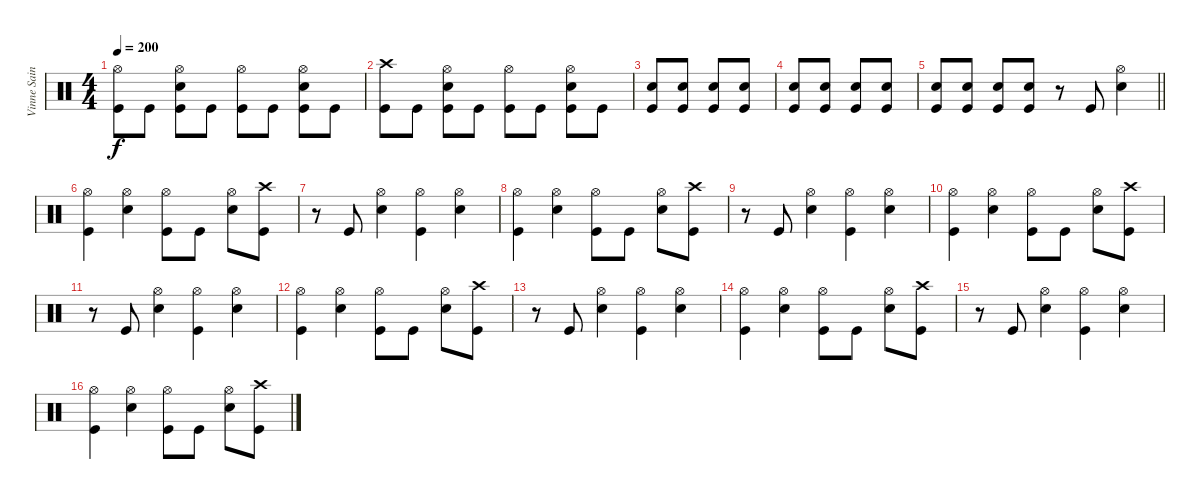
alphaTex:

\track ("Vinne Saint James" "Vinne Sain") {instrument percussion}
\staff {score}
\articulation defaults
\ts (4 4)
\tempo 200
\clef neutral
\ks c
("Hi-Hat (open)" "Kick (hit)").8{dy f} "Kick (hit)".8 ("Hi-Hat (open)" "Electric Snare (hit)" "Kick (hit)").8 "Kick (hit)".8 ("Hi-Hat (open)" "Kick (hit)").8 "Kick (hit)".8 ("Hi-Hat (open)" "Electric Snare (hit)" "Kick (hit)").8 "Kick (hit)".8 |
("Crash high (hit)" "Kick (hit)").8 "Kick (hit)".8 ("Hi-Hat (open)" "Electric Snare (hit)" "Kick (hit)").8 "Kick (hit)".8 ("Hi-Hat (open)" "Kick (hit)").8 "Kick (hit)".8 ("Hi-Hat (open)" "Electric Snare (hit)" "Kick (hit)").8 "Kick (hit)".8 |
("Electric Snare (hit)" "Kick (hit)").8 ("Electric Snare (hit)" "Kick (hit)").8 ("Electric Snare (hit)" "Kick (hit)").8 ("Electric Snare (hit)" "Kick (hit)").8 |
("Electric Snare (hit)" "Kick (hit)").8 ("Electric Snare (hit)" "Kick (hit)").8 ("Electric Snare (hit)" "Kick (hit)").8 ("Electric Snare (hit)" "Kick (hit)").8 |
\barLineRight lightlight
("Electric Snare (hit)" "Kick (hit)").8 ("Electric Snare (hit)" "Kick (hit)").8 ("Electric Snare (hit)" "Kick (hit)").8 ("Electric Snare (hit)" "Kick (hit)").8 r.8 "Kick (hit)".8 ("Hi-Hat (open)" "Electric Snare (hit)").4 |
("Hi-Hat (open)" "Kick (hit)").4 ("Hi-Hat (open)" "Electric Snare (hit)").4 ("Hi-Hat (open)" "Kick (hit)").8 "Kick (hit)".8 ("Hi-Hat (open)" "Electric Snare (hit)").8 ("Crash high (hit)" "Kick (hit)").8 |
r.8 "Kick (hit)".8 ("Hi-Hat (open)" "Electric Snare (hit)").4 ("Hi-Hat (open)" "Kick (hit)").4 ("Hi-Hat (open)" "Electric Snare (hit)").4 |
("Hi-Hat (open)" "Kick (hit)").4 ("Hi-Hat (open)" "Electric Snare (hit)").4 ("Hi-Hat (open)" "Kick (hit)").8 "Kick (hit)".8 ("Hi-Hat (open)" "Electric Snare (hit)").8 ("Crash high (hit)" "Kick (hit)").8 |
r.8 "Kick (hit)".8 ("Hi-Hat (open)" "Electric Snare (hit)").4 ("Hi-Hat (open)" "Kick (hit)").4 ("Hi-Hat (open)" "Electric Snare (hit)").4 |
("Hi-Hat (open)" "Kick (hit)").4 ("Hi-Hat (open)" "Electric Snare (hit)").4 ("Hi-Hat (open)" "Kick (hit)").8 "Kick (hit)".8 ("Hi-Hat (open)" "Electric Snare (hit)").8 ("Crash high (hit)" "Kick (hit)").8 |
r.8 "Kick (hit)".8 ("Hi-Hat (open)" "Electric Snare (hit)").4 ("Hi-Hat (open)" "Kick (hit)").4 ("Hi-Hat (open)" "Electric Snare (hit)").4 |
("Hi-Hat (open)" "Kick (hit)").4 ("Hi-Hat (open)" "Electric Snare (hit)").4 ("Hi-Hat (open)" "Kick (hit)").8 "Kick (hit)".8 ("Hi-Hat (open)" "Electric Snare (hit)").8 ("Crash high (hit)" "Kick (hit)").8 |
r.8 "Kick (hit)".8 ("Hi-Hat (open)" "Electric Snare (hit)").4 ("Hi-Hat (open)" "Kick (hit)").4 ("Hi-Hat (open)" "Electric Snare (hit)").4 |
("Hi-Hat (open)" "Kick (hit)").4 ("Hi-Hat (open)" "Electric Snare (hit)").4 ("Hi-Hat (open)" "Kick (hit)").8 "Kick (hit)".8 ("Hi-Hat (open)" "Electric Snare (hit)").8 ("Crash high (hit)" "Kick (hit)").8 |
r.8 "Kick (hit)".8 ("Hi-Hat (open)" "Electric Snare (hit)").4 ("Hi-Hat (open)" "Kick (hit)").4 ("Hi-Hat (open)" "Electric Snare (hit)").4 |
("Hi-Hat (open)" "Kick (hit)").4 ("Hi-Hat (open)" "Electric Snare (hit)").4 ("Hi-Hat (open)" "Kick (hit)").8 "Kick (hit)".8 ("Hi-Hat (open)" "Electric Snare (hit)").8 ("Crash high (hit)" "Kick (hit)").8
